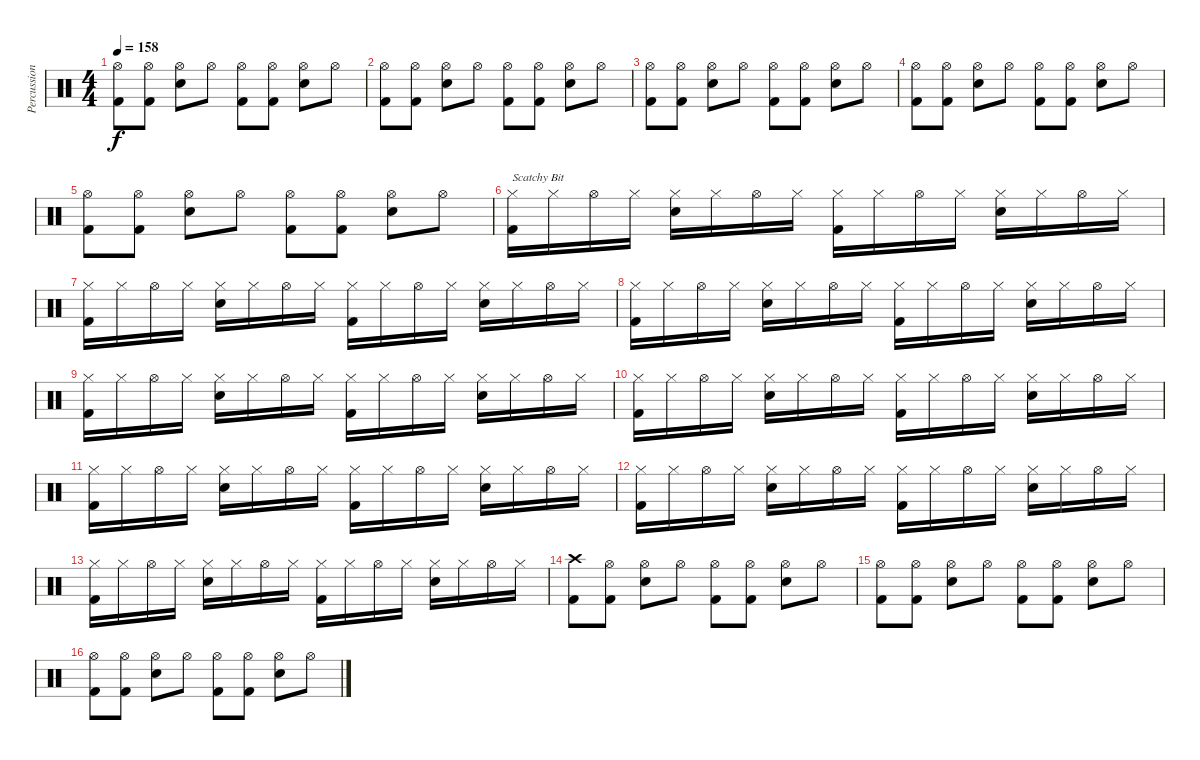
\track ("Percussion" "Percussion") {instrument percussion}
\staff {score}
\articulation defaults
\ts (4 4)
\tempo 158
\clef neutral
\ks c
("Hi-Hat (open)" "Kick (hit) 2").8{dy f} ("Hi-Hat (open)" "Kick (hit) 2").8 ("Hi-Hat (open)" "Electric Snare (hit)").8 "Hi-Hat (open)".8 ("Hi-Hat (open)" "Kick (hit) 2").8 ("Hi-Hat (open)" "Kick (hit) 2").8 ("Hi-Hat (open)" "Electric Snare (hit)").8 "Hi-Hat (open)".8 |
("Hi-Hat (open)" "Kick (hit) 2").8 ("Hi-Hat (open)" "Kick (hit) 2").8 ("Hi-Hat (open)" "Electric Snare (hit)").8 "Hi-Hat (open)".8 ("Hi-Hat (open)" "Kick (hit) 2").8 ("Hi-Hat (open)" "Kick (hit) 2").8 ("Hi-Hat (open)" "Electric Snare (hit)").8 "Hi-Hat (open)".8 |
("Hi-Hat (open)" "Kick (hit) 2").8 ("Hi-Hat (open)" "Kick (hit) 2").8 ("Hi-Hat (open)" "Electric Snare (hit)").8 "Hi-Hat (open)".8 ("Hi-Hat (open)" "Kick (hit) 2").8 ("Hi-Hat (open)" "Kick (hit) 2").8 ("Hi-Hat (open)" "Electric Snare (hit)").8 "Hi-Hat (open)".8 |
("Hi-Hat (open)" "Kick (hit) 2").8 ("Hi-Hat (open)" "Kick (hit) 2").8 ("Hi-Hat (open)" "Electric Snare (hit)").8 "Hi-Hat (open)".8 ("Hi-Hat (open)" "Kick (hit) 2").8 ("Hi-Hat (open)" "Kick (hit) 2").8 ("Hi-Hat (open)" "Electric Snare (hit)").8 "Hi-Hat (open)".8 |
("Hi-Hat (open)" "Kick (hit) 2").8 ("Hi-Hat (open)" "Kick (hit) 2").8 ("Hi-Hat (open)" "Electric Snare (hit)").8 "Hi-Hat (open)".8 ("Hi-Hat (open)" "Kick (hit) 2").8 ("Hi-Hat (open)" "Kick (hit) 2").8 ("Hi-Hat (open)" "Electric Snare (hit)").8 "Hi-Hat (open)".8 |
("Hi-Hat (closed)" "Kick (hit) 2").16{txt "Scatchy Bit"} "Hi-Hat (closed)".16 "Hi-Hat (open)".16 "Hi-Hat (closed)".16 ("Hi-Hat (closed)" "Electric Snare (hit)").16 "Hi-Hat (closed)".16 "Hi-Hat (open)".16 "Hi-Hat (closed)".16 ("Hi-Hat (closed)" "Kick (hit) 2").16 "Hi-Hat (closed)".16 "Hi-Hat (open)".16 "Hi-Hat (closed)".16 ("Hi-Hat (closed)" "Electric Snare (hit)").16 "Hi-Hat (closed)".16 "Hi-Hat (open)".16 "Hi-Hat (closed)".16 |
("Hi-Hat (closed)" "Kick (hit) 2").16 "Hi-Hat (closed)".16 "Hi-Hat (open)".16 "Hi-Hat (closed)".16 ("Hi-Hat (closed)" "Electric Snare (hit)").16 "Hi-Hat (closed)".16 "Hi-Hat (open)".16 "Hi-Hat (closed)".16 ("Hi-Hat (closed)" "Kick (hit) 2").16 "Hi-Hat (closed)".16 "Hi-Hat (open)".16 "Hi-Hat (closed)".16 ("Hi-Hat (closed)" "Electric Snare (hit)").16 "Hi-Hat (closed)".16 "Hi-Hat (open)".16 "Hi-Hat (closed)".16 |
("Hi-Hat (closed)" "Kick (hit) 2").16 "Hi-Hat (closed)".16 "Hi-Hat (open)".16 "Hi-Hat (closed)".16 ("Hi-Hat (closed)" "Electric Snare (hit)").16 "Hi-Hat (closed)".16 "Hi-Hat (open)".16 "Hi-Hat (closed)".16 ("Hi-Hat (closed)" "Kick (hit) 2").16 "Hi-Hat (closed)".16 "Hi-Hat (open)".16 "Hi-Hat (closed)".16 ("Hi-Hat (closed)" "Electric Snare (hit)").16 "Hi-Hat (closed)".16 "Hi-Hat (open)".16 "Hi-Hat (closed)".16 |
("Hi-Hat (closed)" "Kick (hit) 2").16 "Hi-Hat (closed)".16 "Hi-Hat (open)".16 "Hi-Hat (closed)".16 ("Hi-Hat (closed)" "Electric Snare (hit)").16 "Hi-Hat (closed)".16 "Hi-Hat (open)".16 "Hi-Hat (closed)".16 ("Hi-Hat (closed)" "Kick (hit) 2").16 "Hi-Hat (closed)".16 "Hi-Hat (open)".16 "Hi-Hat (closed)".16 ("Hi-Hat (closed)" "Electric Snare (hit)").16 "Hi-Hat (closed)".16 "Hi-Hat (open)".16 "Hi-Hat (closed)".16 |
("Hi-Hat (closed)" "Kick (hit) 2").16 "Hi-Hat (closed)".16 "Hi-Hat (open)".16 "Hi-Hat (closed)".16 ("Hi-Hat (closed)" "Electric Snare (hit)").16 "Hi-Hat (closed)".16 "Hi-Hat (open)".16 "Hi-Hat (closed)".16 ("Hi-Hat (closed)" "Kick (hit) 2").16 "Hi-Hat (closed)".16 "Hi-Hat (open)".16 "Hi-Hat (closed)".16 ("Hi-Hat (closed)" "Electric Snare (hit)").16 "Hi-Hat (closed)".16 "Hi-Hat (open)".16 "Hi-Hat (closed)".16 |
("Hi-Hat (closed)" "Kick (hit) 2").16 "Hi-Hat (closed)".16 "Hi-Hat (open)".16 "Hi-Hat (closed)".16 ("Hi-Hat (closed)" "Electric Snare (hit)").16 "Hi-Hat (closed)".16 "Hi-Hat (open)".16 "Hi-Hat (closed)".16 ("Hi-Hat (closed)" "Kick (hit) 2").16 "Hi-Hat (closed)".16 "Hi-Hat (open)".16 "Hi-Hat (closed)".16 ("Hi-Hat (closed)" "Electric Snare (hit)").16 "Hi-Hat (closed)".16 "Hi-Hat (open)".16 "Hi-Hat (closed)".16 |
("Hi-Hat (closed)" "Kick (hit) 2").16 "Hi-Hat (closed)".16 "Hi-Hat (open)".16 "Hi-Hat (closed)".16 ("Hi-Hat (closed)" "Electric Snare (hit)").16 "Hi-Hat (closed)".16 "Hi-Hat (open)".16 "Hi-Hat (closed)".16 ("Hi-Hat (closed)" "Kick (hit) 2").16 "Hi-Hat (closed)".16 "Hi-Hat (open)".16 "Hi-Hat (closed)".16 ("Hi-Hat (closed)" "Electric Snare (hit)").16 "Hi-Hat (closed)".16 "Hi-Hat (open)".16 "Hi-Hat (closed)".16 |
("Hi-Hat (closed)" "Kick (hit) 2").16 "Hi-Hat (closed)".16 "Hi-Hat (open)".16 "Hi-Hat (closed)".16 ("Hi-Hat (closed)" "Electric Snare (hit)").16 "Hi-Hat (closed)".16 "Hi-Hat (open)".16 "Hi-Hat (closed)".16 ("Hi-Hat (closed)" "Kick (hit) 2").16 "Hi-Hat (closed)".16 "Hi-Hat (open)".16 "Hi-Hat (closed)".16 ("Hi-Hat (closed)" "Electric Snare (hit)").16 "Hi-Hat (closed)".16 "Hi-Hat (open)".16 "Hi-Hat (closed)".16 |
("Crash high (hit)" "Kick (hit) 2").8 ("Hi-Hat (open)" "Kick (hit) 2").8 ("Hi-Hat (open)" "Electric Snare (hit)").8 "Hi-Hat (open)".8 ("Hi-Hat (open)" "Kick (hit) 2").8 ("Hi-Hat (open)" "Kick (hit) 2").8 ("Hi-Hat (open)" "Electric Snare (hit)").8 "Hi-Hat (open)".8 |
("Hi-Hat (open)" "Kick (hit) 2").8 ("Hi-Hat (open)" "Kick (hit) 2").8 ("Hi-Hat (open)" "Electric Snare (hit)").8 "Hi-Hat (open)".8 ("Hi-Hat (open)" "Kick (hit) 2").8 ("Hi-Hat (open)" "Kick (hit) 2").8 ("Hi-Hat (open)" "Electric Snare (hit)").8 "Hi-Hat (open)".8 |
("Hi-Hat (open)" "Kick (hit) 2").8 ("Hi-Hat (open)" "Kick (hit) 2").8 ("Hi-Hat (open)" "Electric Snare (hit)").8 "Hi-Hat (open)".8 ("Hi-Hat (open)" "Kick (hit) 2").8 ("Hi-Hat (open)" "Kick (hit) 2").8 ("Hi-Hat (open)" "Electric Snare (hit)").8 "Hi-Hat (open)".8
